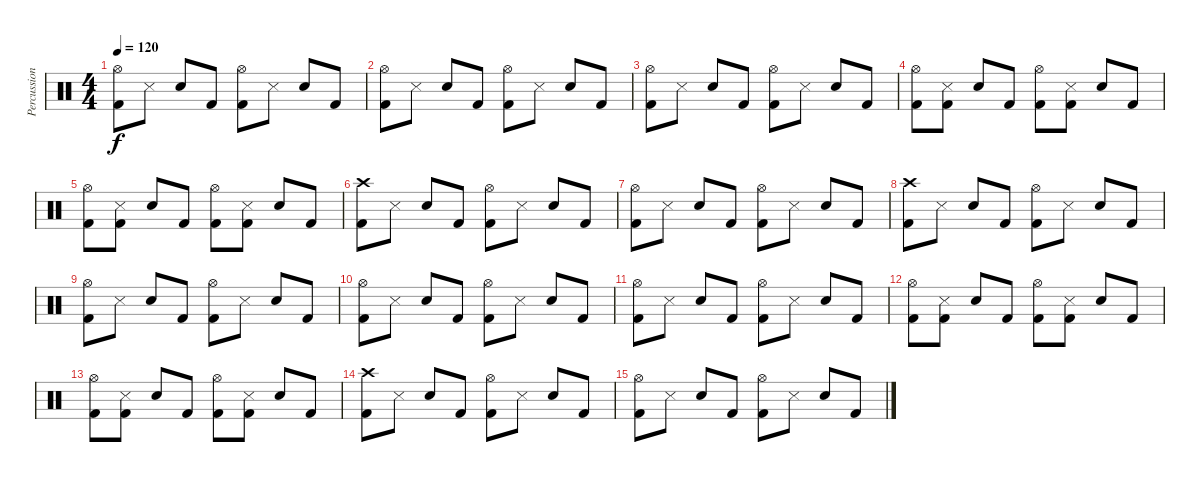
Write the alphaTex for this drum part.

\track ("Percussion" "Percussion") {instrument percussion}
\staff {score}
\articulation defaults
\ts (4 4)
\tempo 120
\clef neutral
\ks c
("Hi-Hat (open)" "Kick (hit) 2").8{dy f} "Snare (side stick) 3".8 "Electric Snare (hit)".8 "Kick (hit) 2".8 ("Hi-Hat (open)" "Kick (hit) 2").8 "Snare (side stick) 3".8 "Electric Snare (hit)".8 "Kick (hit) 2".8 |
("Hi-Hat (open)" "Kick (hit) 2").8 "Snare (side stick) 3".8 "Electric Snare (hit)".8 "Kick (hit) 2".8 ("Hi-Hat (open)" "Kick (hit) 2").8 "Snare (side stick) 3".8 "Electric Snare (hit)".8 "Kick (hit) 2".8 |
("Hi-Hat (open)" "Kick (hit) 2").8 "Snare (side stick) 3".8 "Electric Snare (hit)".8 "Kick (hit) 2".8 ("Hi-Hat (open)" "Kick (hit) 2").8 "Snare (side stick) 3".8 "Electric Snare (hit)".8 "Kick (hit) 2".8 |
("Hi-Hat (open)" "Kick (hit) 2").8 ("Kick (hit) 2" "Snare (side stick) 3").8 "Electric Snare (hit)".8 "Kick (hit) 2".8 ("Hi-Hat (open)" "Kick (hit) 2").8 ("Kick (hit) 2" "Snare (side stick) 3").8 "Electric Snare (hit)".8 "Kick (hit) 2".8 |
("Hi-Hat (open)" "Kick (hit) 2").8 ("Kick (hit) 2" "Snare (side stick) 3").8 "Electric Snare (hit)".8 "Kick (hit) 2".8 ("Hi-Hat (open)" "Kick (hit) 2").8 ("Kick (hit) 2" "Snare (side stick) 3").8 "Electric Snare (hit)".8 "Kick (hit) 2".8 |
("Crash high (hit)" "Kick (hit) 2").8 "Snare (side stick) 3".8 "Electric Snare (hit)".8 "Kick (hit) 2".8 ("Hi-Hat (open)" "Kick (hit) 2").8 "Snare (side stick) 3".8 "Electric Snare (hit)".8 "Kick (hit) 2".8 |
("Hi-Hat (open)" "Kick (hit) 2").8 "Snare (side stick) 3".8 "Electric Snare (hit)".8 "Kick (hit) 2".8 ("Hi-Hat (open)" "Kick (hit) 2").8 "Snare (side stick) 3".8 "Electric Snare (hit)".8 "Kick (hit) 2".8 |
("Crash high (hit)" "Kick (hit) 2").8 "Snare (side stick) 3".8 "Electric Snare (hit)".8 "Kick (hit) 2".8 ("Hi-Hat (open)" "Kick (hit) 2").8 "Snare (side stick) 3".8 "Electric Snare (hit)".8 "Kick (hit) 2".8 |
("Hi-Hat (open)" "Kick (hit) 2").8 "Snare (side stick) 3".8 "Electric Snare (hit)".8 "Kick (hit) 2".8 ("Hi-Hat (open)" "Kick (hit) 2").8 "Snare (side stick) 3".8 "Electric Snare (hit)".8 "Kick (hit) 2".8 |
("Hi-Hat (open)" "Kick (hit) 2").8 "Snare (side stick) 3".8 "Electric Snare (hit)".8 "Kick (hit) 2".8 ("Hi-Hat (open)" "Kick (hit) 2").8 "Snare (side stick) 3".8 "Electric Snare (hit)".8 "Kick (hit) 2".8 |
("Hi-Hat (open)" "Kick (hit) 2").8 "Snare (side stick) 3".8 "Electric Snare (hit)".8 "Kick (hit) 2".8 ("Hi-Hat (open)" "Kick (hit) 2").8 "Snare (side stick) 3".8 "Electric Snare (hit)".8 "Kick (hit) 2".8 |
("Hi-Hat (open)" "Kick (hit) 2").8 ("Kick (hit) 2" "Snare (side stick) 3").8 "Electric Snare (hit)".8 "Kick (hit) 2".8 ("Hi-Hat (open)" "Kick (hit) 2").8 ("Kick (hit) 2" "Snare (side stick) 3").8 "Electric Snare (hit)".8 "Kick (hit) 2".8 |
("Hi-Hat (open)" "Kick (hit) 2").8 ("Kick (hit) 2" "Snare (side stick) 3").8 "Electric Snare (hit)".8 "Kick (hit) 2".8 ("Hi-Hat (open)" "Kick (hit) 2").8 ("Kick (hit) 2" "Snare (side stick) 3").8 "Electric Snare (hit)".8 "Kick (hit) 2".8 |
("Crash high (hit)" "Kick (hit) 2").8 "Snare (side stick) 3".8 "Electric Snare (hit)".8 "Kick (hit) 2".8 ("Hi-Hat (open)" "Kick (hit) 2").8 "Snare (side stick) 3".8 "Electric Snare (hit)".8 "Kick (hit) 2".8 |
("Hi-Hat (open)" "Kick (hit) 2").8 "Snare (side stick) 3".8 "Electric Snare (hit)".8 "Kick (hit) 2".8 ("Hi-Hat (open)" "Kick (hit) 2").8 "Snare (side stick) 3".8 "Electric Snare (hit)".8 "Kick (hit) 2".8
